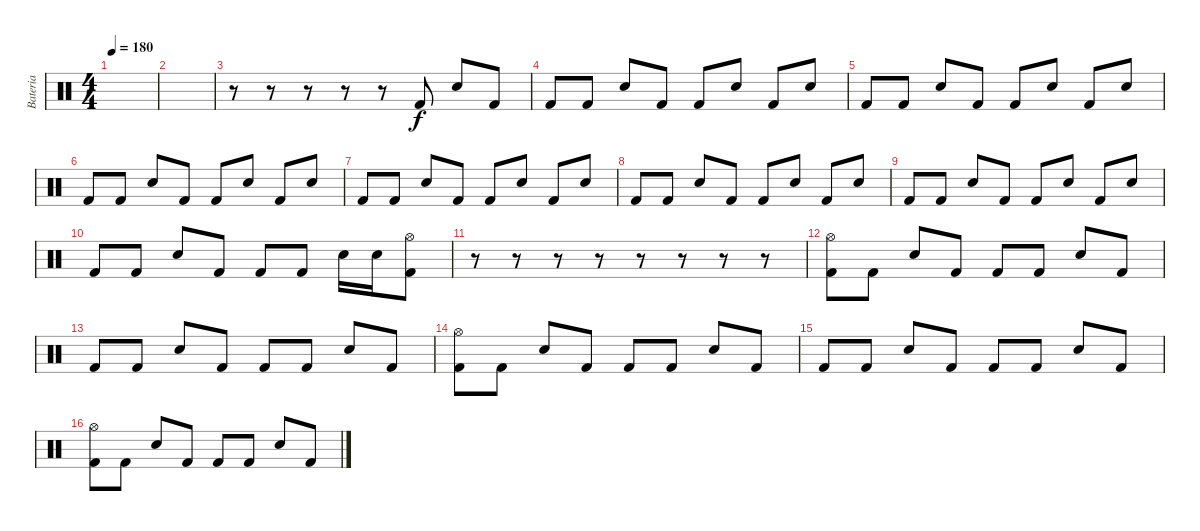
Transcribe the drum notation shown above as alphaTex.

\track ("Bateria" "Bateria") {instrument percussion}
\staff {score}
\articulation defaults
\ts (4 4)
\tempo 180
\clef neutral
\ks c
|
|
r.8 r.8 r.8 r.8 r.8 "Kick (hit) 2".8 "Electric Snare (hit)".8 "Kick (hit) 2".8 |
"Kick (hit) 2".8 "Kick (hit) 2".8 "Electric Snare (hit)".8 "Kick (hit) 2".8 "Kick (hit) 2".8 "Electric Snare (hit)".8 "Kick (hit) 2".8 "Electric Snare (hit)".8 |
"Kick (hit) 2".8 "Kick (hit) 2".8 "Electric Snare (hit)".8 "Kick (hit) 2".8 "Kick (hit) 2".8 "Electric Snare (hit)".8 "Kick (hit) 2".8 "Electric Snare (hit)".8 |
"Kick (hit) 2".8 "Kick (hit) 2".8 "Electric Snare (hit)".8 "Kick (hit) 2".8 "Kick (hit) 2".8 "Electric Snare (hit)".8 "Kick (hit) 2".8 "Electric Snare (hit)".8 |
"Kick (hit) 2".8 "Kick (hit) 2".8 "Electric Snare (hit)".8 "Kick (hit) 2".8 "Kick (hit) 2".8 "Electric Snare (hit)".8 "Kick (hit) 2".8 "Electric Snare (hit)".8 |
"Kick (hit) 2".8 "Kick (hit) 2".8 "Electric Snare (hit)".8 "Kick (hit) 2".8 "Kick (hit) 2".8 "Electric Snare (hit)".8 "Kick (hit) 2".8 "Electric Snare (hit)".8 |
"Kick (hit) 2".8 "Kick (hit) 2".8 "Electric Snare (hit)".8 "Kick (hit) 2".8 "Kick (hit) 2".8 "Electric Snare (hit)".8 "Kick (hit) 2".8 "Electric Snare (hit)".8 |
"Kick (hit) 2".8 "Kick (hit) 2".8 "Electric Snare (hit)".8 "Kick (hit) 2".8 "Kick (hit) 2".8 "Kick (hit) 2".8 "Electric Snare (hit)".16 "Electric Snare (hit)".16 ("Kick (hit) 2" "Hi-Hat (open)").8 |
r.8 r.8 r.8 r.8 r.8 r.8 r.8 r.8 |
("Kick (hit) 2" "Hi-Hat (open)").8 "Kick (hit) 2".8 "Electric Snare (hit)".8 "Kick (hit) 2".8 "Kick (hit) 2".8 "Kick (hit) 2".8 "Electric Snare (hit)".8 "Kick (hit) 2".8 |
"Kick (hit) 2".8 "Kick (hit) 2".8 "Electric Snare (hit)".8 "Kick (hit) 2".8 "Kick (hit) 2".8 "Kick (hit) 2".8 "Electric Snare (hit)".8 "Kick (hit) 2".8 |
("Kick (hit) 2" "Hi-Hat (open)").8 "Kick (hit) 2".8 "Electric Snare (hit)".8 "Kick (hit) 2".8 "Kick (hit) 2".8 "Kick (hit) 2".8 "Electric Snare (hit)".8 "Kick (hit) 2".8 |
"Kick (hit) 2".8 "Kick (hit) 2".8 "Electric Snare (hit)".8 "Kick (hit) 2".8 "Kick (hit) 2".8 "Kick (hit) 2".8 "Electric Snare (hit)".8 "Kick (hit) 2".8 |
("Kick (hit) 2" "Hi-Hat (open)").8 "Kick (hit) 2".8 "Electric Snare (hit)".8 "Kick (hit) 2".8 "Kick (hit) 2".8 "Kick (hit) 2".8 "Electric Snare (hit)".8 "Kick (hit) 2".8
